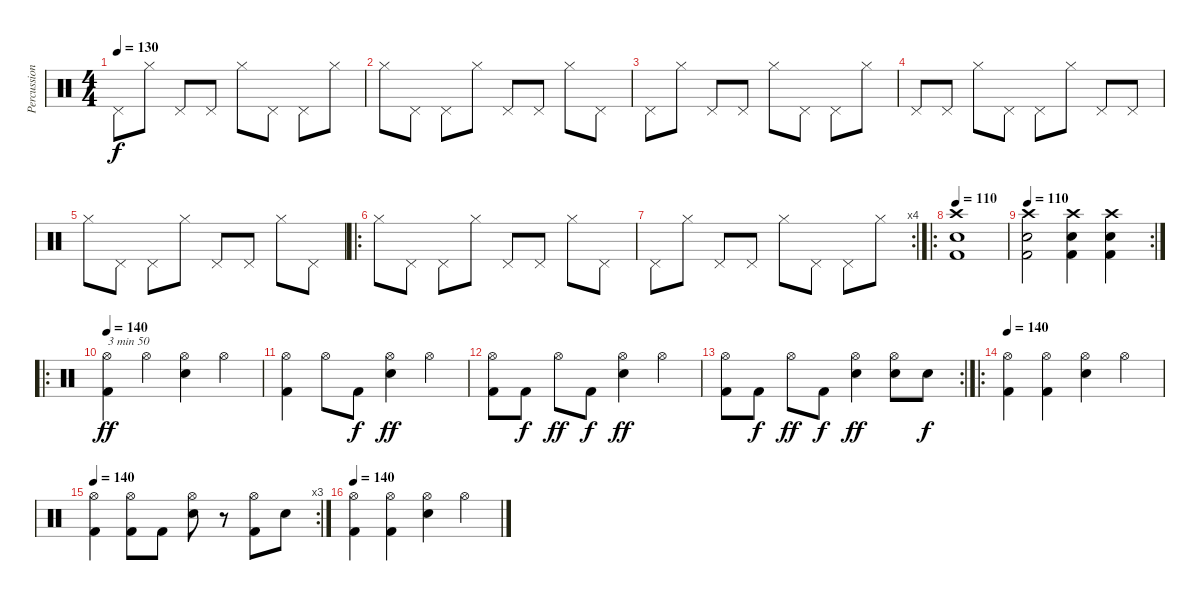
\track ("Percussions" "Percussion") {instrument percussion}
\staff {score}
\articulation defaults
\ts (4 4)
\tempo 130
\clef neutral
\ks c "Pedal Hi-Hat (hit)".8{dy f} "Hi-Hat (closed)".8 "Pedal Hi-Hat (hit)".8 "Pedal Hi-Hat (hit)".8 "Hi-Hat (closed)".8 "Pedal Hi-Hat (hit)".8 "Pedal Hi-Hat (hit)".8 "Hi-Hat (closed)".8
|
"Hi-Hat (closed)".8 "Pedal Hi-Hat (hit)".8 "Pedal Hi-Hat (hit)".8 "Hi-Hat (closed)".8 "Pedal Hi-Hat (hit)".8 "Pedal Hi-Hat (hit)".8 "Hi-Hat (closed)".8 "Pedal Hi-Hat (hit)".8 |
"Pedal Hi-Hat (hit)".8 "Hi-Hat (closed)".8 "Pedal Hi-Hat (hit)".8 "Pedal Hi-Hat (hit)".8 "Hi-Hat (closed)".8 "Pedal Hi-Hat (hit)".8 "Pedal Hi-Hat (hit)".8 "Hi-Hat (closed)".8 |
"Pedal Hi-Hat (hit)".8 "Pedal Hi-Hat (hit)".8 "Hi-Hat (closed)".8 "Pedal Hi-Hat (hit)".8 "Pedal Hi-Hat (hit)".8 "Hi-Hat (closed)".8 "Pedal Hi-Hat (hit)".8 "Pedal Hi-Hat (hit)".8 |
"Hi-Hat (closed)".8 "Pedal Hi-Hat (hit)".8 "Pedal Hi-Hat (hit)".8 "Hi-Hat (closed)".8 "Pedal Hi-Hat (hit)".8 "Pedal Hi-Hat (hit)".8 "Hi-Hat (closed)".8 "Pedal Hi-Hat (hit)".8 |
\ro "Hi-Hat (closed)".8 "Pedal Hi-Hat (hit)".8 "Pedal Hi-Hat (hit)".8 "Hi-Hat (closed)".8 "Pedal Hi-Hat (hit)".8 "Pedal Hi-Hat (hit)".8 "Hi-Hat (closed)".8 "Pedal Hi-Hat (hit)".8
|
\rc 4 "Pedal Hi-Hat (hit)".8 "Hi-Hat (closed)".8 "Pedal Hi-Hat (hit)".8 "Pedal Hi-Hat (hit)".8 "Hi-Hat (closed)".8 "Pedal Hi-Hat (hit)".8 "Pedal Hi-Hat (hit)".8 "Hi-Hat (closed)".8
|
\ro
\tempo 110
("Crash high (hit)" "Snare (hit) 2" "Kick (hit) 2").1 |
\rc 2
\tempo 110
("Crash high (hit)" "Snare (hit) 2" "Kick (hit) 2").2 ("Crash high (hit)" "Snare (hit) 2" "Kick (hit) 2").4 ("Crash high (hit)" "Snare (hit) 2" "Kick (hit) 2").4 |
\ro
\tempo 140
("Hi-Hat (open)" "Kick (hit) 2").4{txt "3 min 50" dy ff} "Hi-Hat (open)".4 ("Hi-Hat (open)" "Snare (hit) 2").4 "Hi-Hat (open)".4 |
("Hi-Hat (open)" "Kick (hit) 2").4 "Hi-Hat (open)".8 "Kick (hit) 2".8{dy f} ("Hi-Hat (open)" "Snare (hit) 2").4{dy ff} "Hi-Hat (open)".4 |
("Hi-Hat (open)" "Kick (hit) 2").8 "Kick (hit) 2".8{dy f} "Hi-Hat (open)".8{dy ff} "Kick (hit) 2".8{dy f} ("Hi-Hat (open)" "Snare (hit) 2").4{dy ff} "Hi-Hat (open)".4 |
\rc 2
("Hi-Hat (open)" "Kick (hit) 2").8 "Kick (hit) 2".8{dy f} "Hi-Hat (open)".8{dy ff} "Kick (hit) 2".8{dy f} ("Hi-Hat (open)" "Snare (hit) 2").4{dy ff} ("Hi-Hat (open)" "Snare (hit) 2").8 "Snare (hit) 2".8{dy f} |
\ro
\tempo 140
("Hi-Hat (open)" "Kick (hit) 2").4 ("Hi-Hat (open)" "Kick (hit) 2").4 ("Hi-Hat (open)" "Snare (hit) 2").4 "Hi-Hat (open)".4 |
\rc 3
\tempo 140
("Hi-Hat (open)" "Kick (hit) 2").4 ("Hi-Hat (open)" "Kick (hit) 2").8 "Kick (hit) 2".8 ("Hi-Hat (open)" "Snare (hit) 2").8 r.8 ("Hi-Hat (open)" "Kick (hit) 2").8 "Snare (hit) 2".8 |
\tempo 140
("Hi-Hat (open)" "Kick (hit) 2").4 ("Hi-Hat (open)" "Kick (hit) 2").4 ("Hi-Hat (open)" "Snare (hit) 2").4 "Hi-Hat (open)".4
